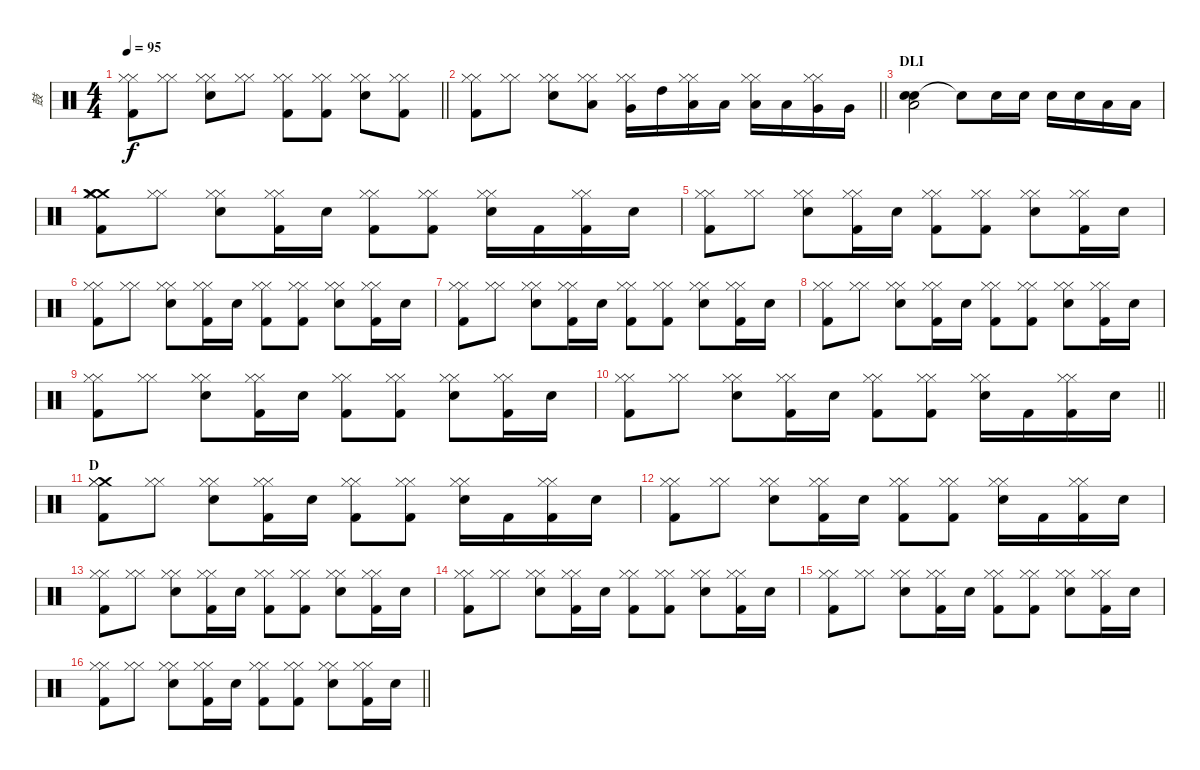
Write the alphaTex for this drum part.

\track ("鼓" "鼓") {instrument percussion}
\staff {score}
\articulation defaults
\ts (4 4)
\tempo 95
\clef neutral
\barLineRight lightlight
\ks c
("Hi-Hat (closed)" "Hi-Hat (closed)" "Kick (hit) 2").8{dy f} ("Hi-Hat (closed)" "Hi-Hat (closed)").8 ("Hi-Hat (closed)" "Hi-Hat (closed)" "Metronome (bell)").8 ("Hi-Hat (closed)" "Hi-Hat (closed)").8 ("Hi-Hat (closed)" "Hi-Hat (closed)" "Kick (hit) 2").8 ("Hi-Hat (closed)" "Hi-Hat (closed)" "Kick (hit) 2").8 ("Hi-Hat (closed)" "Hi-Hat (closed)" "Metronome (bell)").8 ("Hi-Hat (closed)" "Hi-Hat (closed)" "Kick (hit) 2").8 |
\section ("" "")
\barLineRight lightlight
("Hi-Hat (closed)" "Hi-Hat (closed)" "Kick (hit) 2").8 ("Hi-Hat (closed)" "Hi-Hat (closed)").8 ("Hi-Hat (closed)" "Hi-Hat (closed)" "Metronome (bell)").8 ("Hi-Hat (closed)" "Hi-Hat (closed)" "Low Tom (hit)").8 ("Hi-Hat (closed)" "Hi-Hat (closed)" "Very Low Tom (hit)").16 "High Tom (hit)".16 ("Hi-Hat (closed)" "Hi-Hat (closed)" "Low Tom (hit)").16 "Low Tom (hit)".16 ("Hi-Hat (closed)" "Hi-Hat (closed)" "Low Floor Tom (hit)").16{volume 11} "Low Tom (hit)".16{volume 12} ("Hi-Hat (closed)" "Hi-Hat (closed)" "Very Low Tom (hit)").16{volume 13} "Very Low Tom (hit)".16{volume 14} |
\section ("" "DLI")
("Metronome (bell)" "Metronome (bell)" "Low Tom (hit)").2{volume 14} "Metronome (bell)"{t}.8 "Snare (hit) 2".16{volume 9} "Snare (hit) 2".16{volume 8} "Metronome (bell)".16{volume 12} "Metronome (bell)".16{volume 13} "Low Tom (hit)".16{volume 14} "Low Tom (hit)".16{volume 15} |
("Crash medium (hit)" "Hi-Hat (closed)" "Hi-Hat (closed)" "Crash medium (hit)" "Kick (hit) 2").8{volume 13} ("Hi-Hat (closed)" "Hi-Hat (closed)").8 ("Hi-Hat (closed)" "Hi-Hat (closed)" "Metronome (bell)").8 ("Hi-Hat (closed)" "Hi-Hat (closed)" "Kick (hit) 2").16 "Metronome (bell)".16 ("Hi-Hat (closed)" "Hi-Hat (closed)" "Kick (hit) 2").8 ("Hi-Hat (closed)" "Hi-Hat (closed)" "Kick (hit) 2").8 ("Hi-Hat (closed)" "Hi-Hat (closed)" "Metronome (bell)").16 "Kick (hit) 2".16 ("Hi-Hat (closed)" "Hi-Hat (closed)" "Kick (hit) 2").16 "Metronome (bell)".16 |
("Hi-Hat (closed)" "Hi-Hat (closed)" "Kick (hit) 2").8 ("Hi-Hat (closed)" "Hi-Hat (closed)").8 ("Hi-Hat (closed)" "Hi-Hat (closed)" "Metronome (bell)").8 ("Hi-Hat (closed)" "Hi-Hat (closed)" "Kick (hit) 2").16 "Metronome (bell)".16 ("Hi-Hat (closed)" "Hi-Hat (closed)" "Kick (hit) 2").8 ("Hi-Hat (closed)" "Hi-Hat (closed)" "Kick (hit) 2").8 ("Hi-Hat (closed)" "Hi-Hat (closed)" "Metronome (bell)").8 ("Hi-Hat (closed)" "Hi-Hat (closed)" "Kick (hit) 2").16 "Metronome (bell)".16 |
("Hi-Hat (closed)" "Hi-Hat (closed)" "Kick (hit) 2").8 ("Hi-Hat (closed)" "Hi-Hat (closed)").8 ("Hi-Hat (closed)" "Hi-Hat (closed)" "Metronome (bell)").8 ("Hi-Hat (closed)" "Hi-Hat (closed)" "Kick (hit) 2").16 "Metronome (bell)".16 ("Hi-Hat (closed)" "Hi-Hat (closed)" "Kick (hit) 2").8 ("Hi-Hat (closed)" "Hi-Hat (closed)" "Kick (hit) 2").8 ("Hi-Hat (closed)" "Hi-Hat (closed)" "Metronome (bell)").8 ("Hi-Hat (closed)" "Hi-Hat (closed)" "Kick (hit) 2").16 "Metronome (bell)".16 |
("Hi-Hat (closed)" "Hi-Hat (closed)" "Kick (hit) 2").8 ("Hi-Hat (closed)" "Hi-Hat (closed)").8 ("Hi-Hat (closed)" "Hi-Hat (closed)" "Metronome (bell)").8 ("Hi-Hat (closed)" "Hi-Hat (closed)" "Kick (hit) 2").16 "Metronome (bell)".16 ("Hi-Hat (closed)" "Hi-Hat (closed)" "Kick (hit) 2").8 ("Hi-Hat (closed)" "Hi-Hat (closed)" "Kick (hit) 2").8 ("Hi-Hat (closed)" "Hi-Hat (closed)" "Metronome (bell)").8 ("Hi-Hat (closed)" "Hi-Hat (closed)" "Kick (hit) 2").16 "Metronome (bell)".16 |
("Hi-Hat (closed)" "Hi-Hat (closed)" "Kick (hit) 2").8 ("Hi-Hat (closed)" "Hi-Hat (closed)").8 ("Hi-Hat (closed)" "Hi-Hat (closed)" "Metronome (bell)").8 ("Hi-Hat (closed)" "Hi-Hat (closed)" "Kick (hit) 2").16 "Metronome (bell)".16 ("Hi-Hat (closed)" "Hi-Hat (closed)" "Kick (hit) 2").8 ("Hi-Hat (closed)" "Hi-Hat (closed)" "Kick (hit) 2").8 ("Hi-Hat (closed)" "Hi-Hat (closed)" "Metronome (bell)").8 ("Hi-Hat (closed)" "Hi-Hat (closed)" "Kick (hit) 2").16 "Metronome (bell)".16 |
("Hi-Hat (closed)" "Hi-Hat (closed)" "Kick (hit) 2").8 ("Hi-Hat (closed)" "Hi-Hat (closed)").8 ("Hi-Hat (closed)" "Hi-Hat (closed)" "Metronome (bell)").8 ("Hi-Hat (closed)" "Hi-Hat (closed)" "Kick (hit) 2").16 "Metronome (bell)".16 ("Hi-Hat (closed)" "Hi-Hat (closed)" "Kick (hit) 2").8 ("Hi-Hat (closed)" "Hi-Hat (closed)" "Kick (hit) 2").8 ("Hi-Hat (closed)" "Hi-Hat (closed)" "Metronome (bell)").8 ("Hi-Hat (closed)" "Hi-Hat (closed)" "Kick (hit) 2").16 "Metronome (bell)".16 |
\barLineRight lightlight
("Hi-Hat (closed)" "Hi-Hat (closed)" "Kick (hit) 2").8 ("Hi-Hat (closed)" "Hi-Hat (closed)").8 ("Hi-Hat (closed)" "Hi-Hat (closed)" "Metronome (bell)").8 ("Hi-Hat (closed)" "Hi-Hat (closed)" "Kick (hit) 2").16 "Metronome (bell)".16 ("Hi-Hat (closed)" "Hi-Hat (closed)" "Kick (hit) 2").8 ("Hi-Hat (closed)" "Hi-Hat (closed)" "Kick (hit) 2").8 ("Hi-Hat (closed)" "Hi-Hat (closed)" "Metronome (bell)").16 "Kick (hit) 2".16 ("Hi-Hat (closed)" "Hi-Hat (closed)" "Kick (hit) 2").16 "Metronome (bell)".16 |
\section ("" "D")
("Crash medium (hit)" "Hi-Hat (closed)" "Hi-Hat (closed)" "Kick (hit) 2").8 ("Hi-Hat (closed)" "Hi-Hat (closed)").8 ("Hi-Hat (closed)" "Hi-Hat (closed)" "Metronome (bell)").8 ("Hi-Hat (closed)" "Hi-Hat (closed)" "Kick (hit) 2").16 "Metronome (bell)".16 ("Hi-Hat (closed)" "Hi-Hat (closed)" "Kick (hit) 2").8 ("Hi-Hat (closed)" "Hi-Hat (closed)" "Kick (hit) 2").8 ("Hi-Hat (closed)" "Hi-Hat (closed)" "Metronome (bell)").16 "Kick (hit) 2".16 ("Hi-Hat (closed)" "Hi-Hat (closed)" "Kick (hit) 2").16 "Metronome (bell)".16 |
("Hi-Hat (closed)" "Hi-Hat (closed)" "Kick (hit) 2").8 ("Hi-Hat (closed)" "Hi-Hat (closed)").8 ("Hi-Hat (closed)" "Hi-Hat (closed)" "Metronome (bell)").8 ("Hi-Hat (closed)" "Hi-Hat (closed)" "Kick (hit) 2").16 "Metronome (bell)".16 ("Hi-Hat (closed)" "Hi-Hat (closed)" "Kick (hit) 2").8 ("Hi-Hat (closed)" "Hi-Hat (closed)" "Kick (hit) 2").8 ("Hi-Hat (closed)" "Hi-Hat (closed)" "Metronome (bell)").16 "Kick (hit) 2".16 ("Hi-Hat (closed)" "Hi-Hat (closed)" "Kick (hit) 2").16 "Metronome (bell)".16 |
("Hi-Hat (closed)" "Hi-Hat (closed)" "Kick (hit) 2").8 ("Hi-Hat (closed)" "Hi-Hat (closed)").8 ("Hi-Hat (closed)" "Hi-Hat (closed)" "Metronome (bell)").8 ("Hi-Hat (closed)" "Hi-Hat (closed)" "Kick (hit) 2").16 "Metronome (bell)".16 ("Hi-Hat (closed)" "Hi-Hat (closed)" "Kick (hit) 2").8 ("Hi-Hat (closed)" "Hi-Hat (closed)" "Kick (hit) 2").8 ("Hi-Hat (closed)" "Hi-Hat (closed)" "Metronome (bell)").8 ("Hi-Hat (closed)" "Hi-Hat (closed)" "Kick (hit) 2").16 "Metronome (bell)".16 |
("Hi-Hat (closed)" "Hi-Hat (closed)" "Kick (hit) 2").8 ("Hi-Hat (closed)" "Hi-Hat (closed)").8 ("Hi-Hat (closed)" "Hi-Hat (closed)" "Metronome (bell)").8 ("Hi-Hat (closed)" "Hi-Hat (closed)" "Kick (hit) 2").16 "Metronome (bell)".16 ("Hi-Hat (closed)" "Hi-Hat (closed)" "Kick (hit) 2").8 ("Hi-Hat (closed)" "Hi-Hat (closed)" "Kick (hit) 2").8 ("Hi-Hat (closed)" "Hi-Hat (closed)" "Metronome (bell)").8 ("Hi-Hat (closed)" "Hi-Hat (closed)" "Kick (hit) 2").16 "Metronome (bell)".16 |
("Hi-Hat (closed)" "Hi-Hat (closed)" "Kick (hit) 2").8 ("Hi-Hat (closed)" "Hi-Hat (closed)").8 ("Hi-Hat (closed)" "Hi-Hat (closed)" "Metronome (bell)").8 ("Hi-Hat (closed)" "Hi-Hat (closed)" "Kick (hit) 2").16 "Metronome (bell)".16 ("Hi-Hat (closed)" "Hi-Hat (closed)" "Kick (hit) 2").8 ("Hi-Hat (closed)" "Hi-Hat (closed)" "Kick (hit) 2").8 ("Hi-Hat (closed)" "Hi-Hat (closed)" "Metronome (bell)").8 ("Hi-Hat (closed)" "Hi-Hat (closed)" "Kick (hit) 2").16 "Metronome (bell)".16 |
\barLineRight lightlight
("Hi-Hat (closed)" "Hi-Hat (closed)" "Kick (hit) 2").8 ("Hi-Hat (closed)" "Hi-Hat (closed)").8 ("Hi-Hat (closed)" "Hi-Hat (closed)" "Metronome (bell)").8 ("Hi-Hat (closed)" "Hi-Hat (closed)" "Kick (hit) 2").16 "Metronome (bell)".16 ("Hi-Hat (closed)" "Hi-Hat (closed)" "Kick (hit) 2").8 ("Hi-Hat (closed)" "Hi-Hat (closed)" "Kick (hit) 2").8 ("Hi-Hat (closed)" "Hi-Hat (closed)" "Metronome (bell)").8 ("Hi-Hat (closed)" "Hi-Hat (closed)" "Kick (hit) 2").16 "Metronome (bell)".16
